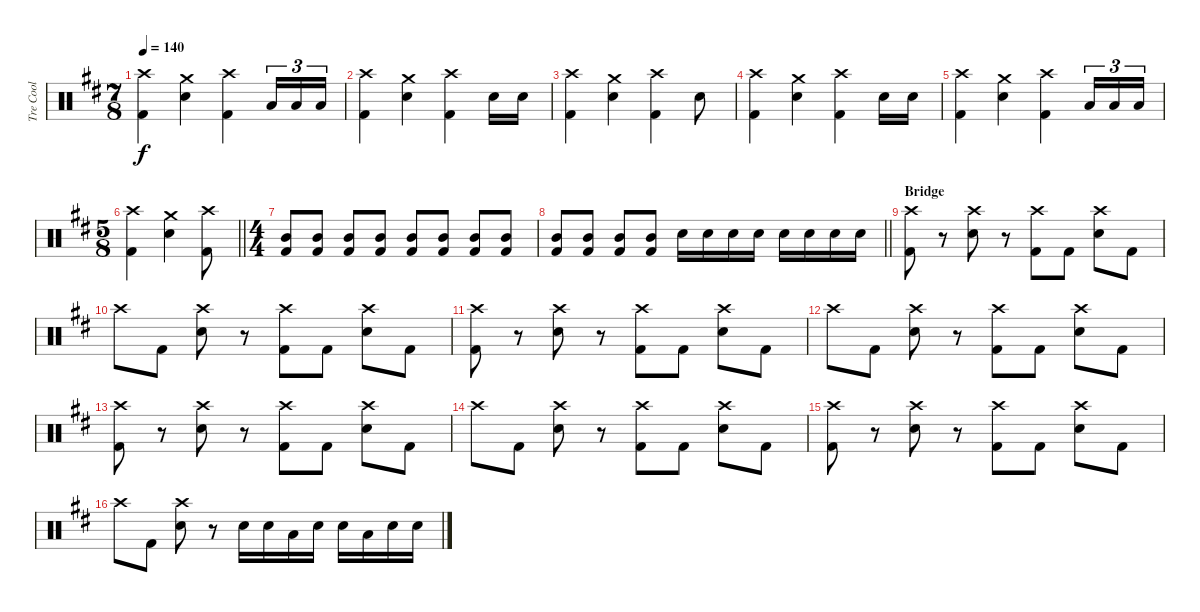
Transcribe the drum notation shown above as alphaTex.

\track ("Tre Cool" "Tre Cool") {instrument percussion}
\staff {score}
\articulation defaults
\ts (7 8)
\tempo 140
\clef neutral
\ks d
("Kick (hit) 2" "Crash high (hit)").4{dy f} ("Electric Snare (hit)" "Crash medium (hit)").4 ("Kick (hit) 2" "Crash high (hit)").4 "Low Tom (hit)".16{tu (3 2)} "Low Tom (hit)".16{tu (3 2)} "Low Tom (hit)".16{tu (3 2)} |
("Crash high (hit)" "Kick (hit) 2").4 ("Crash medium (hit)" "Electric Snare (hit)").4 ("Crash high (hit)" "Kick (hit) 2").4 "Electric Snare (hit)".16 "Electric Snare (hit)".16 |
("Crash high (hit)" "Kick (hit) 2").4 ("Crash medium (hit)" "Electric Snare (hit)").4 ("Crash high (hit)" "Kick (hit) 2").4 "Electric Snare (hit)".8 |
("Crash high (hit)" "Kick (hit) 2").4 ("Crash medium (hit)" "Electric Snare (hit)").4 ("Crash high (hit)" "Kick (hit) 2").4 "Electric Snare (hit)".16 "Electric Snare (hit)".16 |
("Kick (hit) 2" "Crash high (hit)").4 ("Electric Snare (hit)" "Crash medium (hit)").4 ("Kick (hit) 2" "Crash high (hit)").4 "Low Tom (hit)".16{tu (3 2)} "Low Tom (hit)".16{tu (3 2)} "Low Tom (hit)".16{tu (3 2)} |
\ts (5 8)
\barLineRight lightlight
("Crash high (hit)" "Kick (hit) 2").4 ("Crash medium (hit)" "Electric Snare (hit)").4 ("Crash high (hit)" "Kick (hit) 2").8 |
\ts (4 4)
("Mid Tom (hit)" "Kick (hit) 2").8 ("Mid Tom (hit)" "Kick (hit) 2").8 ("Mid Tom (hit)" "Kick (hit) 2").8 ("Mid Tom (hit)" "Kick (hit) 2").8 ("Mid Tom (hit)" "Kick (hit) 2").8 ("Mid Tom (hit)" "Kick (hit) 2").8 ("Mid Tom (hit)" "Kick (hit) 2").8 ("Mid Tom (hit)" "Kick (hit) 2").8 |
\barLineRight lightlight
("Mid Tom (hit)" "Kick (hit) 2").8 ("Mid Tom (hit)" "Kick (hit) 2").8 ("Mid Tom (hit)" "Kick (hit) 2").8 ("Mid Tom (hit)" "Kick (hit) 2").8 "Electric Snare (hit)".16 "Electric Snare (hit)".16 "Electric Snare (hit)".16 "Electric Snare (hit)".16 "Electric Snare (hit)".16 "Electric Snare (hit)".16 "Electric Snare (hit)".16 "Electric Snare (hit)".16 |
\section ("" "Bridge")
("Crash high (hit)" "Kick (hit) 2").8 r.8 ("Crash high (hit)" "Snare (hit) 2").8 r.8 ("Crash high (hit)" "Kick (hit) 2").8 "Kick (hit) 2".8 ("Crash high (hit)" "Snare (hit) 2").8 "Kick (hit) 2".8 |
"Crash high (hit)".8 "Kick (hit) 2".8 ("Crash high (hit)" "Snare (hit) 2").8 r.8 ("Crash high (hit)" "Kick (hit) 2").8 "Kick (hit) 2".8 ("Crash high (hit)" "Snare (hit) 2").8 "Kick (hit) 2".8 |
("Crash high (hit)" "Kick (hit) 2").8 r.8 ("Crash high (hit)" "Snare (hit) 2").8 r.8 ("Crash high (hit)" "Kick (hit) 2").8 "Kick (hit) 2".8 ("Crash high (hit)" "Snare (hit) 2").8 "Kick (hit) 2".8 |
"Crash high (hit)".8 "Kick (hit) 2".8 ("Crash high (hit)" "Snare (hit) 2").8 r.8 ("Crash high (hit)" "Kick (hit) 2").8 "Kick (hit) 2".8 ("Crash high (hit)" "Snare (hit) 2").8 "Kick (hit) 2".8 |
("Crash high (hit)" "Kick (hit) 2").8 r.8 ("Crash high (hit)" "Snare (hit) 2").8 r.8 ("Crash high (hit)" "Kick (hit) 2").8 "Kick (hit) 2".8 ("Crash high (hit)" "Snare (hit) 2").8 "Kick (hit) 2".8 |
"Crash high (hit)".8 "Kick (hit) 2".8 ("Crash high (hit)" "Snare (hit) 2").8 r.8 ("Crash high (hit)" "Kick (hit) 2").8 "Kick (hit) 2".8 ("Crash high (hit)" "Snare (hit) 2").8 "Kick (hit) 2".8 |
("Crash high (hit)" "Kick (hit) 2").8 r.8 ("Crash high (hit)" "Snare (hit) 2").8 r.8 ("Crash high (hit)" "Kick (hit) 2").8 "Kick (hit) 2".8 ("Crash high (hit)" "Snare (hit) 2").8 "Kick (hit) 2".8 |
"Crash high (hit)".8 "Kick (hit) 2".8 ("Crash high (hit)" "Snare (hit) 2").8 r.8 "Electric Snare (hit)".16 "Electric Snare (hit)".16 "Low Tom (hit)".16 "Electric Snare (hit)".16 "Electric Snare (hit)".16 "Low Tom (hit)".16 "Electric Snare (hit)".16 "Electric Snare (hit)".16
